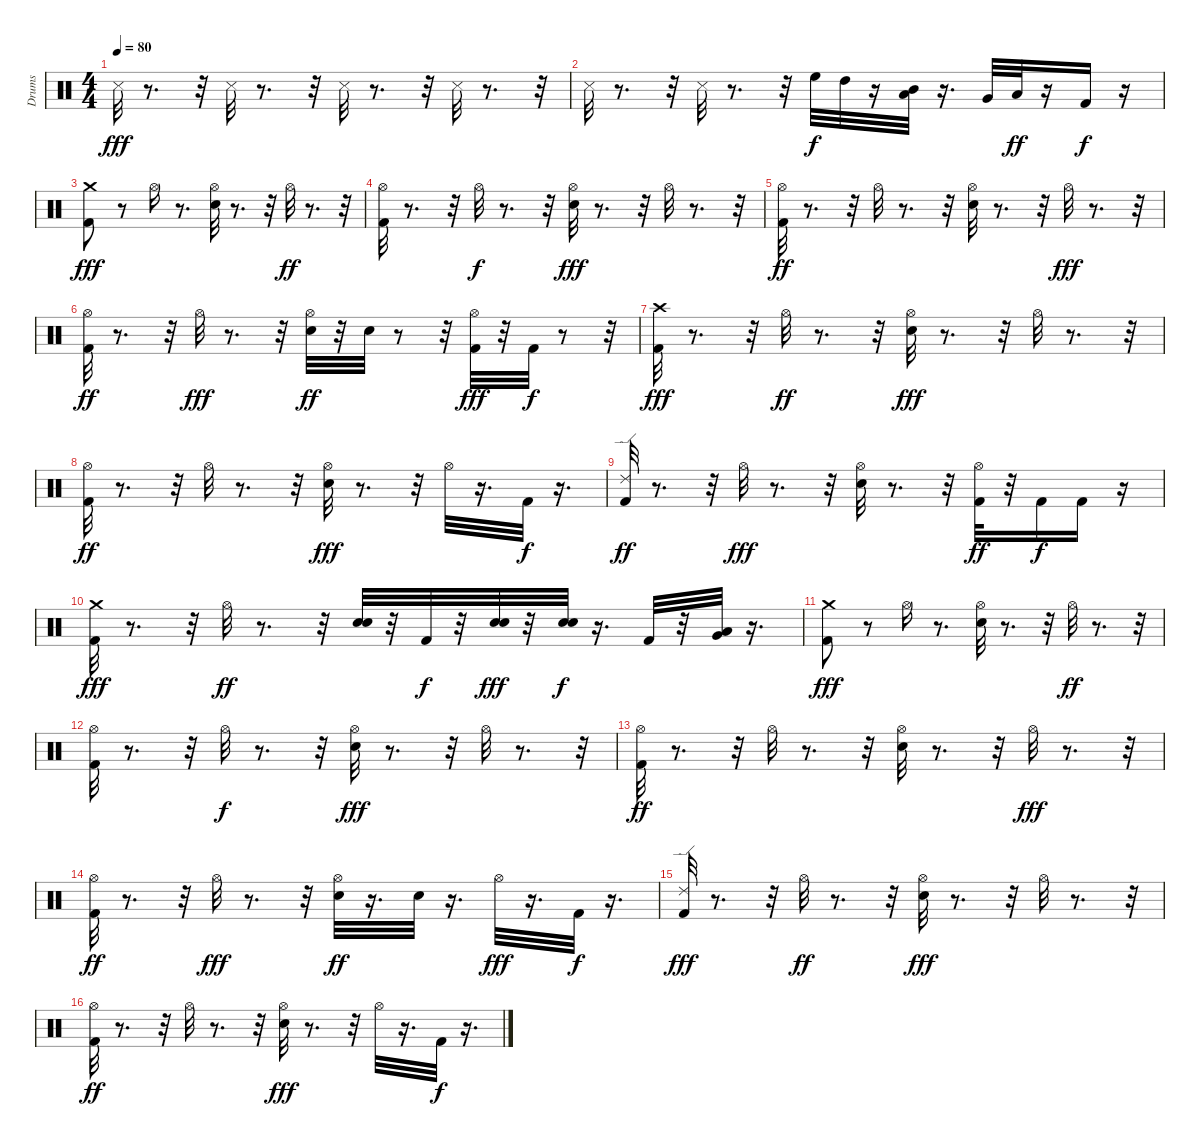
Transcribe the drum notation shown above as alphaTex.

\track ("Drums" "Drums") {instrument percussion}
\staff {score}
\articulation defaults
\ts (4 4)
\tempo 80
\clef neutral
\ks c "Snare (side stick) 3".32{dy fff}
r.8{d} r.32 "Snare (side stick) 3".32 r.8{d} r.32 "Snare (side stick) 3".32 r.8{d} r.32 "Snare (side stick) 3".32 r.8{d} r.32 |
"Snare (side stick) 3".32 r.8{d} r.32 "Snare (side stick) 3".32 r.8{d} r.32 "High Floor Tom (hit)".32{dy f} "High Tom (hit)".32 r.16 ("Mid Tom (hit)" "Low Tom (hit)").32 r.16{d} "Very Low Tom (hit)".32 "Low Floor Tom (hit)".32{dy ff} r.16 "Kick (hit) 2".16{dy f} r.16 |
("Kick (hit) 2" "Crash medium (hit)").8{dy fff} r.8 "Hi-Hat (open)".16 r.8{d} ("Electric Snare (hit)" "Hi-Hat (open)").32 r.8{d} r.32 "Hi-Hat (open)".32{dy ff} r.8{d} r.32 |
("Hi-Hat (open)" "Kick (hit) 2").32 r.8{d} r.32 "Hi-Hat (open)".32{dy f} r.8{d} r.32 ("Electric Snare (hit)" "Hi-Hat (open)").32{dy fff} r.8{d} r.32 "Hi-Hat (open)".32 r.8{d} r.32 |
("Hi-Hat (open)" "Kick (hit) 2").32{dy ff} r.8{d} r.32 "Hi-Hat (open)".32 r.8{d} r.32 ("Electric Snare (hit)" "Hi-Hat (open)").32 r.8{d} r.32 "Hi-Hat (open)".32{dy fff} r.8{d} r.32 |
("Hi-Hat (open)" "Kick (hit) 2").32{dy ff} r.8{d} r.32 "Hi-Hat (open)".32{dy fff} r.8{d} r.32 ("Hi-Hat (open)" "Electric Snare (hit)").32{dy ff} r.32 "Electric Snare (hit)".32 r.8 r.32 ("Kick (hit) 2" "Hi-Hat (open)").32{dy fff} r.32 "Kick (hit) 2".32{dy f} r.8 r.32 |
("Kick (hit) 2" "Crash high (hit)").32{dy fff} r.8{d} r.32 "Hi-Hat (open)".32{dy ff} r.8{d} r.32 ("Electric Snare (hit)" "Hi-Hat (open)").32{dy fff} r.8{d} r.32 "Hi-Hat (open)".32 r.8{d} r.32 |
("Hi-Hat (open)" "Kick (hit) 2").32{dy ff} r.8{d} r.32 "Hi-Hat (open)".32 r.8{d} r.32 ("Electric Snare (hit)" "Hi-Hat (open)").32{dy fff} r.8{d} r.32 "Hi-Hat (open)".32 r.16{d} "Kick (hit) 2".32{dy f} r.16{d} |
("Ride (edge) 2" "Kick (hit) 2").32{dy ff} r.8{d} r.32 "Hi-Hat (open)".32{dy fff} r.8{d} r.32 ("Hi-Hat (open)" "Electric Snare (hit)").32 r.8{d} r.32 ("Hi-Hat (open)" "Kick (hit) 2").32{dy ff} r.32 "Kick (hit) 2".16{dy f} "Kick (hit) 2".16 r.16 |
("Kick (hit) 2" "Crash medium (hit)").32{dy fff} r.8{d} r.32 "Hi-Hat (open)".32{dy ff} r.8{d} r.32 ("Electric Snare (hit)" "Snare (hit) 2").32 r.32 "Kick (hit) 2".32{dy f} r.32 ("Electric Snare (hit)" "Snare (hit) 2").32{dy fff} r.32 ("Electric Snare (hit)" "Snare (hit) 2").32{dy f} r.16{d} "Kick (hit) 2".32 r.32 ("Very Low Tom (hit)" "Low Floor Tom (hit)").32 r.16{d} |
("Kick (hit) 2" "Crash medium (hit)").8{dy fff} r.8 "Hi-Hat (open)".16 r.8{d} ("Electric Snare (hit)" "Hi-Hat (open)").32 r.8{d} r.32 "Hi-Hat (open)".32{dy ff} r.8{d} r.32 |
("Hi-Hat (open)" "Kick (hit) 2").32 r.8{d} r.32 "Hi-Hat (open)".32{dy f} r.8{d} r.32 ("Electric Snare (hit)" "Hi-Hat (open)").32{dy fff} r.8{d} r.32 "Hi-Hat (open)".32 r.8{d} r.32 |
("Hi-Hat (open)" "Kick (hit) 2").32{dy ff} r.8{d} r.32 "Hi-Hat (open)".32 r.8{d} r.32 ("Electric Snare (hit)" "Hi-Hat (open)").32 r.8{d} r.32 "Hi-Hat (open)".32{dy fff} r.8{d} r.32 |
("Hi-Hat (open)" "Kick (hit) 2").32{dy ff} r.8{d} r.32 "Hi-Hat (open)".32{dy fff} r.8{d} r.32 ("Hi-Hat (open)" "Electric Snare (hit)").32{dy ff} r.16{d} "Electric Snare (hit)".32 r.16{d} "Hi-Hat (open)".32{dy fff} r.16{d} "Kick (hit) 2".32{dy f} r.16{d} |
("Kick (hit) 2" "Ride (edge) 2").32{dy fff} r.8{d} r.32 "Hi-Hat (open)".32{dy ff} r.8{d} r.32 ("Electric Snare (hit)" "Hi-Hat (open)").32{dy fff} r.8{d} r.32 "Hi-Hat (open)".32 r.8{d} r.32 |
("Hi-Hat (open)" "Kick (hit) 2").32{dy ff} r.8{d} r.32 "Hi-Hat (open)".32 r.8{d} r.32 ("Electric Snare (hit)" "Hi-Hat (open)").32{dy fff} r.8{d} r.32 "Hi-Hat (open)".32 r.16{d} "Kick (hit) 2".32{dy f} r.16{d}
